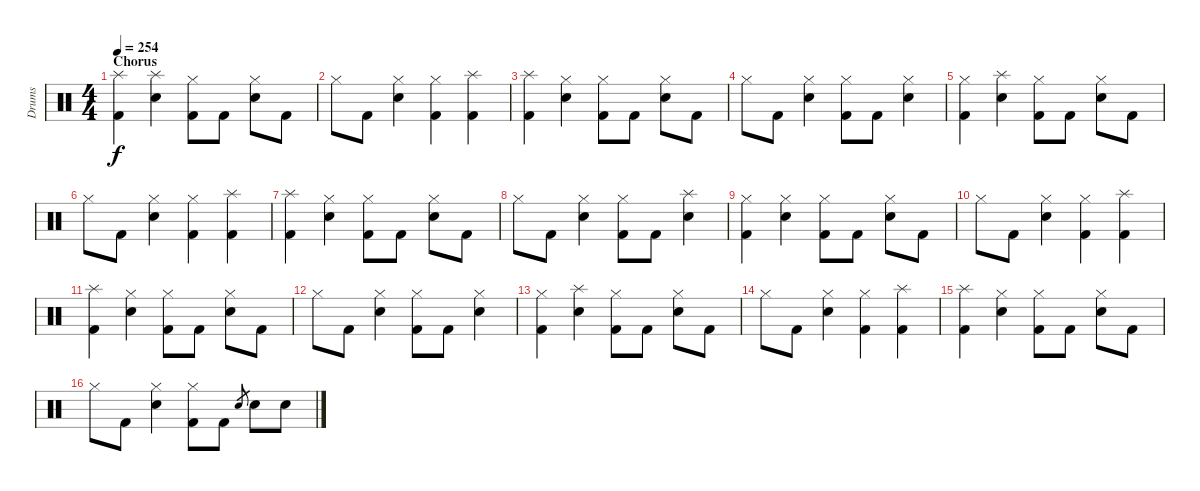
\track ("Drums" "Drums") {instrument percussion}
\staff {score}
\articulation defaults
\ts (4 4)
\section ("" "Chorus")
\tempo 254
\clef neutral
\ks c
("Splash (hit)" "Kick (hit) 2").4{dy f} ("Splash (hit)" "Electric Snare (hit)").4 ("Hi-Hat (closed)" "Kick (hit) 2").8 "Kick (hit) 2".8 ("Hi-Hat (closed)" "Electric Snare (hit)").8 "Kick (hit) 2".8 |
"Hi-Hat (closed)".8 "Kick (hit) 2".8 ("Hi-Hat (closed)" "Electric Snare (hit)").4 ("Hi-Hat (closed)" "Kick (hit) 2").4 ("Splash (hit)" "Kick (hit) 2").4 |
("Splash (hit)" "Kick (hit) 2").4 ("Hi-Hat (closed)" "Electric Snare (hit)").4 ("Hi-Hat (closed)" "Kick (hit) 2").8 "Kick (hit) 2".8 ("Hi-Hat (closed)" "Electric Snare (hit)").8 "Kick (hit) 2".8 |
"Hi-Hat (closed)".8 "Kick (hit) 2".8 ("Hi-Hat (closed)" "Electric Snare (hit)").4 ("Hi-Hat (closed)" "Kick (hit) 2").8 "Kick (hit) 2".8 ("Hi-Hat (closed)" "Electric Snare (hit)").4 |
("Hi-Hat (closed)" "Kick (hit) 2").4 ("Splash (hit)" "Electric Snare (hit)").4 ("Hi-Hat (closed)" "Kick (hit) 2").8 "Kick (hit) 2".8 ("Hi-Hat (closed)" "Electric Snare (hit)").8 "Kick (hit) 2".8 |
"Hi-Hat (closed)".8 "Kick (hit) 2".8 ("Hi-Hat (closed)" "Electric Snare (hit)").4 ("Hi-Hat (closed)" "Kick (hit) 2").4 ("Splash (hit)" "Kick (hit) 2").4 |
("Splash (hit)" "Kick (hit) 2").4 ("Hi-Hat (closed)" "Electric Snare (hit)").4 ("Hi-Hat (closed)" "Kick (hit) 2").8 "Kick (hit) 2".8 ("Hi-Hat (closed)" "Electric Snare (hit)").8 "Kick (hit) 2".8 |
"Hi-Hat (closed)".8 "Kick (hit) 2".8 ("Hi-Hat (closed)" "Electric Snare (hit)").4 ("Hi-Hat (closed)" "Kick (hit) 2").8 "Kick (hit) 2".8 ("Splash (hit)" "Electric Snare (hit)").4 |
("Hi-Hat (closed)" "Kick (hit) 2").4 ("Hi-Hat (closed)" "Electric Snare (hit)").4 ("Hi-Hat (closed)" "Kick (hit) 2").8 "Kick (hit) 2".8 ("Hi-Hat (closed)" "Electric Snare (hit)").8 "Kick (hit) 2".8 |
"Hi-Hat (closed)".8 "Kick (hit) 2".8 ("Hi-Hat (closed)" "Electric Snare (hit)").4 ("Hi-Hat (closed)" "Kick (hit) 2").4 ("Splash (hit)" "Kick (hit) 2").4 |
("Splash (hit)" "Kick (hit) 2").4 ("Hi-Hat (closed)" "Electric Snare (hit)").4 ("Hi-Hat (closed)" "Kick (hit) 2").8 "Kick (hit) 2".8 ("Hi-Hat (closed)" "Electric Snare (hit)").8 "Kick (hit) 2".8 |
"Hi-Hat (closed)".8 "Kick (hit) 2".8 ("Hi-Hat (closed)" "Electric Snare (hit)").4 ("Hi-Hat (closed)" "Kick (hit) 2").8 "Kick (hit) 2".8 ("Hi-Hat (closed)" "Electric Snare (hit)").4 |
("Hi-Hat (closed)" "Kick (hit) 2").4 ("Splash (hit)" "Electric Snare (hit)").4 ("Hi-Hat (closed)" "Kick (hit) 2").8 "Kick (hit) 2".8 ("Hi-Hat (closed)" "Electric Snare (hit)").8 "Kick (hit) 2".8 |
"Hi-Hat (closed)".8 "Kick (hit) 2".8 ("Hi-Hat (closed)" "Electric Snare (hit)").4 ("Hi-Hat (closed)" "Kick (hit) 2").4 ("Splash (hit)" "Kick (hit) 2").4 |
("Splash (hit)" "Kick (hit) 2").4 ("Hi-Hat (closed)" "Electric Snare (hit)").4 ("Hi-Hat (closed)" "Kick (hit) 2").8 "Kick (hit) 2".8 ("Hi-Hat (closed)" "Electric Snare (hit)").8 "Kick (hit) 2".8 |
"Hi-Hat (closed)".8 "Kick (hit) 2".8 ("Hi-Hat (closed)" "Electric Snare (hit)").4 ("Hi-Hat (closed)" "Kick (hit) 2").8 "Kick (hit) 2".8 "Electric Snare (hit)".8{gr} "Electric Snare (hit)".8 "Electric Snare (hit)".8
